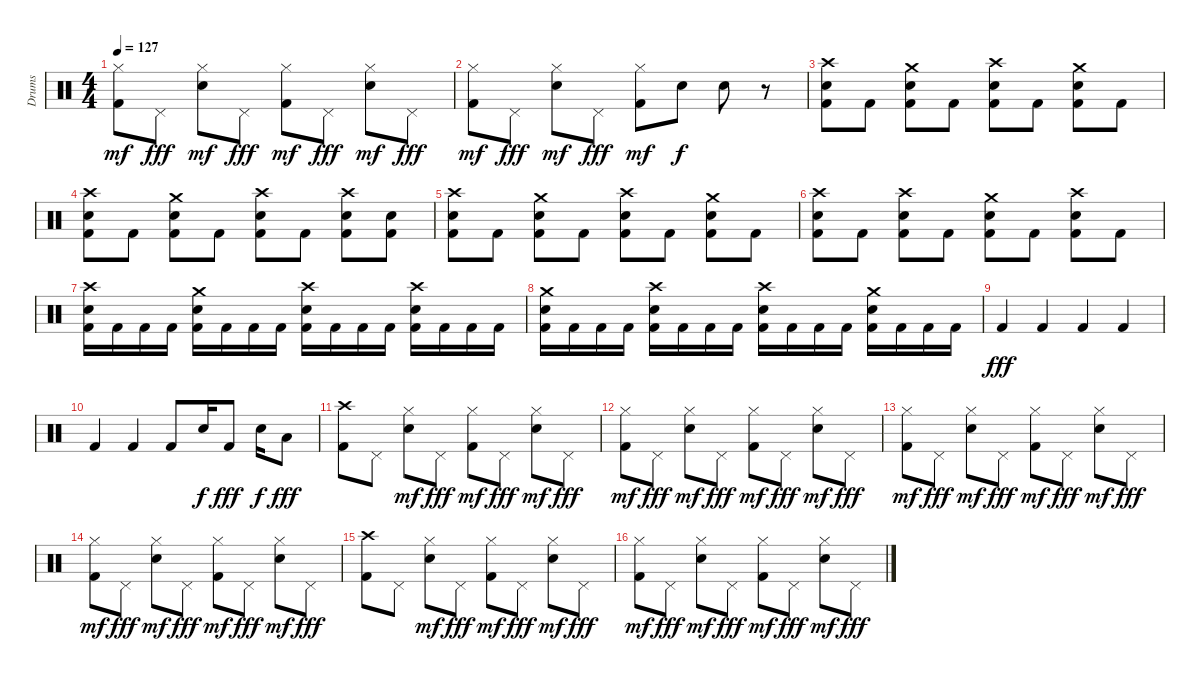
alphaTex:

\track ("Drums" "Drums") {instrument percussion}
\staff {score}
\articulation defaults
\ts (4 4)
\tempo 127
\clef neutral
\ks c
("Kick (hit) 2" "Hi-Hat (closed)").8{dy mf} "Pedal Hi-Hat (hit)".8{dy fff} ("Hi-Hat (closed)" "Electric Snare (hit)").8{dy mf} "Pedal Hi-Hat (hit)".8{dy fff} ("Kick (hit) 2" "Hi-Hat (closed)").8{dy mf} "Pedal Hi-Hat (hit)".8{dy fff} ("Hi-Hat (closed)" "Electric Snare (hit)").8{dy mf} "Pedal Hi-Hat (hit)".8{dy fff} |
("Kick (hit) 2" "Hi-Hat (closed)").8{dy mf} "Pedal Hi-Hat (hit)".8{dy fff} ("Hi-Hat (closed)" "Electric Snare (hit)").8{dy mf} "Pedal Hi-Hat (hit)".8{dy fff} ("Kick (hit) 2" "Hi-Hat (closed)").8{dy mf} "Electric Snare (hit)".8{dy f} "Electric Snare (hit)".8 r.8 |
("Kick (hit) 2" "Crash high (hit)" "Electric Snare (hit)").8 "Kick (hit) 2".8 ("Kick (hit) 2" "Crash medium (hit)" "Electric Snare (hit)").8 "Kick (hit) 2".8 ("Kick (hit) 2" "Crash high (hit)" "Electric Snare (hit)").8 "Kick (hit) 2".8 ("Kick (hit) 2" "Crash medium (hit)" "Electric Snare (hit)").8 "Kick (hit) 2".8 |
("Kick (hit) 2" "Crash high (hit)" "Electric Snare (hit)").8 "Kick (hit) 2".8 ("Kick (hit) 2" "Crash medium (hit)" "Electric Snare (hit)").8 "Kick (hit) 2".8 ("Kick (hit) 2" "Crash high (hit)" "Electric Snare (hit)").8 "Kick (hit) 2".8 ("Kick (hit) 2" "Crash high (hit)" "Electric Snare (hit)").8 ("Kick (hit) 2" "Electric Snare (hit)").8 |
("Kick (hit) 2" "Crash high (hit)" "Electric Snare (hit)").8 "Kick (hit) 2".8 ("Kick (hit) 2" "Crash medium (hit)" "Electric Snare (hit)").8 "Kick (hit) 2".8 ("Kick (hit) 2" "Crash high (hit)" "Electric Snare (hit)").8 "Kick (hit) 2".8 ("Kick (hit) 2" "Crash medium (hit)" "Electric Snare (hit)").8 "Kick (hit) 2".8 |
("Kick (hit) 2" "Crash high (hit)" "Electric Snare (hit)").8 "Kick (hit) 2".8 ("Kick (hit) 2" "Crash high (hit)" "Electric Snare (hit)").8 "Kick (hit) 2".8 ("Kick (hit) 2" "Crash medium (hit)" "Electric Snare (hit)").8 "Kick (hit) 2".8 ("Kick (hit) 2" "Crash high (hit)" "Electric Snare (hit)").8 "Kick (hit) 2".8 |
("Kick (hit) 2" "Crash high (hit)" "Electric Snare (hit)").16 "Kick (hit) 2".16 "Kick (hit) 2".16 "Kick (hit) 2".16 ("Kick (hit) 2" "Crash medium (hit)" "Electric Snare (hit)").16 "Kick (hit) 2".16 "Kick (hit) 2".16 "Kick (hit) 2".16 ("Kick (hit) 2" "Crash high (hit)" "Electric Snare (hit)").16 "Kick (hit) 2".16 "Kick (hit) 2".16 "Kick (hit) 2".16 ("Kick (hit) 2" "Crash high (hit)" "Electric Snare (hit)").16 "Kick (hit) 2".16 "Kick (hit) 2".16 "Kick (hit) 2".16 |
("Kick (hit) 2" "Crash medium (hit)" "Electric Snare (hit)").16 "Kick (hit) 2".16 "Kick (hit) 2".16 "Kick (hit) 2".16 ("Kick (hit) 2" "Crash high (hit)" "Electric Snare (hit)").16 "Kick (hit) 2".16 "Kick (hit) 2".16 "Kick (hit) 2".16 ("Kick (hit) 2" "Crash high (hit)" "Electric Snare (hit)").16 "Kick (hit) 2".16 "Kick (hit) 2".16 "Kick (hit) 2".16 ("Kick (hit) 2" "Crash medium (hit)" "Electric Snare (hit)").16 "Kick (hit) 2".16 "Kick (hit) 2".16 "Kick (hit) 2".16 |
"Kick (hit) 2".4{dy fff} "Kick (hit) 2".4 "Kick (hit) 2".4 "Kick (hit) 2".4 |
"Kick (hit) 2".4 "Kick (hit) 2".4 "Kick (hit) 2".8 "Electric Snare (hit)".16{dy f} "Kick (hit) 2".8{dy fff} "Electric Snare (hit)".16{dy f} "Low Floor Tom (hit)".8{dy fff} |
("Kick (hit) 2" "Crash high (hit)").8 "Pedal Hi-Hat (hit)".8 ("Hi-Hat (closed)" "Electric Snare (hit)").8{dy mf} "Pedal Hi-Hat (hit)".8{dy fff} ("Kick (hit) 2" "Hi-Hat (closed)").8{dy mf} "Pedal Hi-Hat (hit)".8{dy fff} ("Hi-Hat (closed)" "Electric Snare (hit)").8{dy mf} "Pedal Hi-Hat (hit)".8{dy fff} |
("Kick (hit) 2" "Hi-Hat (closed)").8{dy mf} "Pedal Hi-Hat (hit)".8{dy fff} ("Hi-Hat (closed)" "Electric Snare (hit)").8{dy mf} "Pedal Hi-Hat (hit)".8{dy fff} ("Kick (hit) 2" "Hi-Hat (closed)").8{dy mf} "Pedal Hi-Hat (hit)".8{dy fff} ("Hi-Hat (closed)" "Electric Snare (hit)").8{dy mf} "Pedal Hi-Hat (hit)".8{dy fff} |
("Kick (hit) 2" "Hi-Hat (closed)").8{dy mf} "Pedal Hi-Hat (hit)".8{dy fff} ("Hi-Hat (closed)" "Electric Snare (hit)").8{dy mf} "Pedal Hi-Hat (hit)".8{dy fff} ("Kick (hit) 2" "Hi-Hat (closed)").8{dy mf} "Pedal Hi-Hat (hit)".8{dy fff} ("Hi-Hat (closed)" "Electric Snare (hit)").8{dy mf} "Pedal Hi-Hat (hit)".8{dy fff} |
("Kick (hit) 2" "Hi-Hat (closed)").8{dy mf} "Pedal Hi-Hat (hit)".8{dy fff} ("Hi-Hat (closed)" "Electric Snare (hit)").8{dy mf} "Pedal Hi-Hat (hit)".8{dy fff} ("Kick (hit) 2" "Hi-Hat (closed)").8{dy mf} "Pedal Hi-Hat (hit)".8{dy fff} ("Hi-Hat (closed)" "Electric Snare (hit)").8{dy mf} "Pedal Hi-Hat (hit)".8{dy fff} |
("Kick (hit) 2" "Crash high (hit)").8 "Pedal Hi-Hat (hit)".8 ("Hi-Hat (closed)" "Electric Snare (hit)").8{dy mf} "Pedal Hi-Hat (hit)".8{dy fff} ("Kick (hit) 2" "Hi-Hat (closed)").8{dy mf} "Pedal Hi-Hat (hit)".8{dy fff} ("Hi-Hat (closed)" "Electric Snare (hit)").8{dy mf} "Pedal Hi-Hat (hit)".8{dy fff} |
("Kick (hit) 2" "Hi-Hat (closed)").8{dy mf} "Pedal Hi-Hat (hit)".8{dy fff} ("Hi-Hat (closed)" "Electric Snare (hit)").8{dy mf} "Pedal Hi-Hat (hit)".8{dy fff} ("Kick (hit) 2" "Hi-Hat (closed)").8{dy mf} "Pedal Hi-Hat (hit)".8{dy fff} ("Hi-Hat (closed)" "Electric Snare (hit)").8{dy mf} "Pedal Hi-Hat (hit)".8{dy fff}
